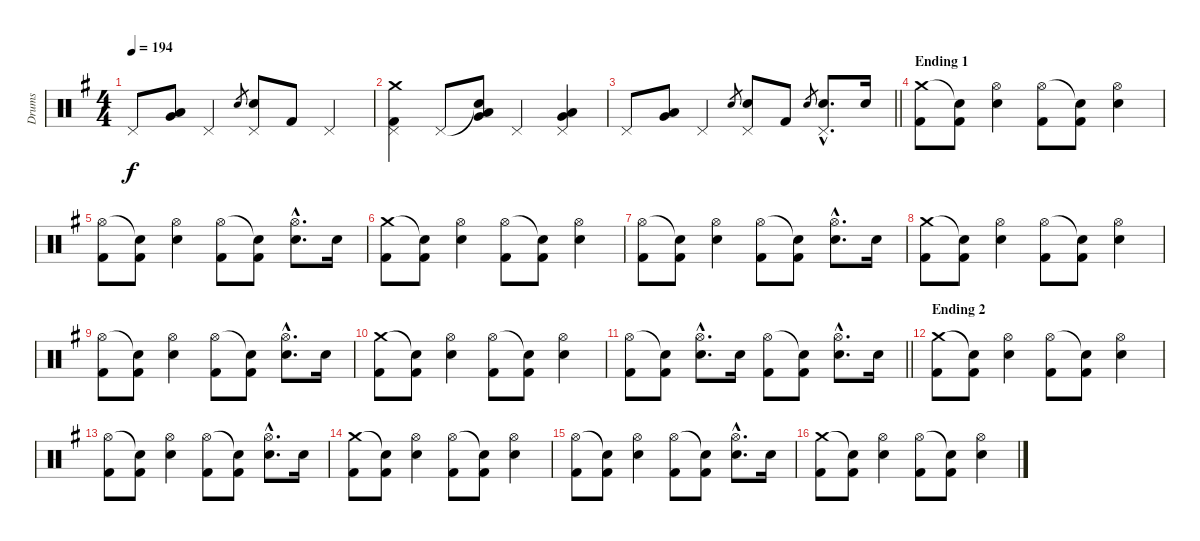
\track ("Drums" "Drums") {instrument percussion}
\staff {score}
\articulation defaults
\ts (4 4)
\tempo 194
\clef neutral
\ks eminor "Pedal Hi-Hat (hit)".8{dy f}
("Very Low Tom (hit)" "Low Floor Tom (hit)").8 "Pedal Hi-Hat (hit)".4 "Electric Snare (hit)".8{gr} ("Pedal Hi-Hat (hit)" "Electric Snare (hit)").8 "Kick (hit) 2".8 "Pedal Hi-Hat (hit)".4 |
("Crash medium (hit)" "Pedal Hi-Hat (hit)" "Kick (hit) 2").4 "Pedal Hi-Hat (hit)".8 ("Snare (hit)"{t} "Very Low Tom (hit)" "Low Floor Tom (hit)").8 "Pedal Hi-Hat (hit)".4 ("Pedal Hi-Hat (hit)" "Low Tom (hit)" "Very Low Tom (hit)").4 |
\barLineRight lightlight "Pedal Hi-Hat (hit)".8
("Very Low Tom (hit)" "Low Floor Tom (hit)").8 "Pedal Hi-Hat (hit)".4 "Electric Snare (hit)".8{gr} ("Pedal Hi-Hat (hit)" "Electric Snare (hit)").8 "Kick (hit) 2".8 "Electric Snare (hit)".8{gr} ("Pedal Hi-Hat (hit)"{hac} "Electric Snare (hit)"{hac}).8{d} "Electric Snare (hit)".16 |
\section ("" "Ending 1")
("Crash medium (hit)" "Kick (hit) 2").8 ("Snare (hit)"{t} "Kick (hit) 2").8 ("Hi-Hat (open)" "Electric Snare (hit)").4 ("Hi-Hat (open)" "Kick (hit) 2").8 ("Snare (hit)"{t} "Kick (hit) 2").8 ("Hi-Hat (open)" "Electric Snare (hit)").4 |
("Hi-Hat (open)" "Kick (hit) 2").8 ("Snare (hit)"{t} "Kick (hit) 2").8 ("Hi-Hat (open)" "Electric Snare (hit)").4 ("Hi-Hat (open)" "Kick (hit) 2").8 ("Snare (hit)"{t} "Kick (hit) 2").8 ("Hi-Hat (open)"{hac} "Electric Snare (hit)"{hac}).8{d} "Electric Snare (hit)".16 |
("Crash medium (hit)" "Kick (hit) 2").8 ("Snare (hit)"{t} "Kick (hit) 2").8 ("Hi-Hat (open)" "Electric Snare (hit)").4 ("Hi-Hat (open)" "Kick (hit) 2").8 ("Snare (hit)"{t} "Kick (hit) 2").8 ("Hi-Hat (open)" "Electric Snare (hit)").4 |
("Hi-Hat (open)" "Kick (hit) 2").8 ("Snare (hit)"{t} "Kick (hit) 2").8 ("Hi-Hat (open)" "Electric Snare (hit)").4 ("Hi-Hat (open)" "Kick (hit) 2").8 ("Snare (hit)"{t} "Kick (hit) 2").8 ("Hi-Hat (open)"{hac} "Electric Snare (hit)"{hac}).8{d} "Electric Snare (hit)".16 |
("Crash medium (hit)" "Kick (hit) 2").8 ("Snare (hit)"{t} "Kick (hit) 2").8 ("Hi-Hat (open)" "Electric Snare (hit)").4 ("Hi-Hat (open)" "Kick (hit) 2").8 ("Snare (hit)"{t} "Kick (hit) 2").8 ("Hi-Hat (open)" "Electric Snare (hit)").4 |
("Hi-Hat (open)" "Kick (hit) 2").8 ("Snare (hit)"{t} "Kick (hit) 2").8 ("Hi-Hat (open)" "Electric Snare (hit)").4 ("Hi-Hat (open)" "Kick (hit) 2").8 ("Snare (hit)"{t} "Kick (hit) 2").8 ("Hi-Hat (open)"{hac} "Electric Snare (hit)"{hac}).8{d} "Electric Snare (hit)".16 |
("Crash medium (hit)" "Kick (hit) 2").8 ("Snare (hit)"{t} "Kick (hit) 2").8 ("Hi-Hat (open)" "Electric Snare (hit)").4 ("Hi-Hat (open)" "Kick (hit) 2").8 ("Snare (hit)"{t} "Kick (hit) 2").8 ("Hi-Hat (open)" "Electric Snare (hit)").4 |
\barLineRight lightlight
("Hi-Hat (open)" "Kick (hit) 2").8 ("Snare (hit)"{t} "Kick (hit) 2").8 ("Hi-Hat (open)"{hac} "Electric Snare (hit)"{hac}).8{d} "Electric Snare (hit)".16 ("Hi-Hat (open)" "Kick (hit) 2").8 ("Snare (hit)"{t} "Kick (hit) 2").8 ("Hi-Hat (open)"{hac} "Electric Snare (hit)"{hac}).8{d} "Electric Snare (hit)".16 |
\section ("" "Ending 2")
("Crash medium (hit)" "Kick (hit) 2").8 ("Snare (hit)"{t} "Kick (hit) 2").8 ("Hi-Hat (open)" "Electric Snare (hit)").4 ("Hi-Hat (open)" "Kick (hit) 2").8 ("Snare (hit)"{t} "Kick (hit) 2").8 ("Hi-Hat (open)" "Electric Snare (hit)").4 |
("Hi-Hat (open)" "Kick (hit) 2").8 ("Snare (hit)"{t} "Kick (hit) 2").8 ("Hi-Hat (open)" "Electric Snare (hit)").4 ("Hi-Hat (open)" "Kick (hit) 2").8 ("Snare (hit)"{t} "Kick (hit) 2").8 ("Hi-Hat (open)"{hac} "Electric Snare (hit)"{hac}).8{d} "Electric Snare (hit)".16 |
("Crash medium (hit)" "Kick (hit) 2").8 ("Snare (hit)"{t} "Kick (hit) 2").8 ("Hi-Hat (open)" "Electric Snare (hit)").4 ("Hi-Hat (open)" "Kick (hit) 2").8 ("Snare (hit)"{t} "Kick (hit) 2").8 ("Hi-Hat (open)" "Electric Snare (hit)").4 |
("Hi-Hat (open)" "Kick (hit) 2").8 ("Snare (hit)"{t} "Kick (hit) 2").8 ("Hi-Hat (open)" "Electric Snare (hit)").4 ("Hi-Hat (open)" "Kick (hit) 2").8 ("Snare (hit)"{t} "Kick (hit) 2").8 ("Hi-Hat (open)"{hac} "Electric Snare (hit)"{hac}).8{d} "Electric Snare (hit)".16 |
("Crash medium (hit)" "Kick (hit) 2").8 ("Snare (hit)"{t} "Kick (hit) 2").8 ("Hi-Hat (open)" "Electric Snare (hit)").4 ("Hi-Hat (open)" "Kick (hit) 2").8 ("Snare (hit)"{t} "Kick (hit) 2").8 ("Hi-Hat (open)" "Electric Snare (hit)").4
